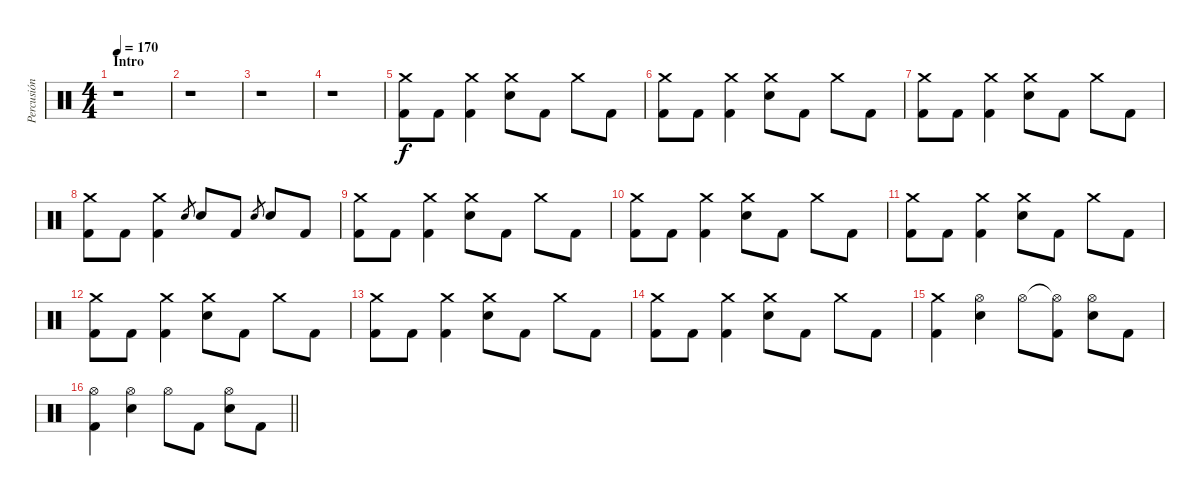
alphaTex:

\track ("Percusión" "Percusión") {instrument percussion}
\staff {score}
\articulation defaults
\ts (4 4)
\section ("" "Intro")
\tempo 170
\clef neutral
\ks c
r.1{dy f} |
r.1 |
r.1 |
r.1 |
("Crash medium (hit)" "Kick (hit) 2").8 "Kick (hit) 2".8 ("Crash medium (hit)" "Kick (hit) 2").4 ("Crash medium (hit)" "Electric Snare (hit)").8 "Kick (hit) 2".8 "Crash medium (hit)".8 "Kick (hit) 2".8 |
("Crash medium (hit)" "Kick (hit) 2").8 "Kick (hit) 2".8 ("Crash medium (hit)" "Kick (hit) 2").4 ("Crash medium (hit)" "Electric Snare (hit)").8 "Kick (hit) 2".8 "Crash medium (hit)".8 "Kick (hit) 2".8 |
("Crash medium (hit)" "Kick (hit) 2").8 "Kick (hit) 2".8 ("Crash medium (hit)" "Kick (hit) 2").4 ("Crash medium (hit)" "Electric Snare (hit)").8 "Kick (hit) 2".8 "Crash medium (hit)".8 "Kick (hit) 2".8 |
("Crash medium (hit)" "Kick (hit) 2").8 "Kick (hit) 2".8 ("Crash medium (hit)" "Kick (hit) 2").4 "Electric Snare (hit)".8{gr} "Electric Snare (hit)".8 "Kick (hit) 2".8 "Electric Snare (hit)".8{gr} "Electric Snare (hit)".8 "Kick (hit) 2".8 |
("Crash medium (hit)" "Kick (hit) 2").8 "Kick (hit) 2".8 ("Crash medium (hit)" "Kick (hit) 2").4 ("Crash medium (hit)" "Electric Snare (hit)").8 "Kick (hit) 2".8 "Crash medium (hit)".8 "Kick (hit) 2".8 |
("Crash medium (hit)" "Kick (hit) 2").8 "Kick (hit) 2".8 ("Crash medium (hit)" "Kick (hit) 2").4 ("Crash medium (hit)" "Electric Snare (hit)").8 "Kick (hit) 2".8 "Crash medium (hit)".8 "Kick (hit) 2".8 |
("Crash medium (hit)" "Kick (hit) 2").8 "Kick (hit) 2".8 ("Crash medium (hit)" "Kick (hit) 2").4 ("Crash medium (hit)" "Electric Snare (hit)").8 "Kick (hit) 2".8 "Crash medium (hit)".8 "Kick (hit) 2".8 |
("Crash medium (hit)" "Kick (hit) 2").8 "Kick (hit) 2".8 ("Crash medium (hit)" "Kick (hit) 2").4 ("Crash medium (hit)" "Electric Snare (hit)").8 "Kick (hit) 2".8 "Crash medium (hit)".8 "Kick (hit) 2".8 |
("Crash medium (hit)" "Kick (hit) 2").8 "Kick (hit) 2".8 ("Crash medium (hit)" "Kick (hit) 2").4 ("Crash medium (hit)" "Electric Snare (hit)").8 "Kick (hit) 2".8 "Crash medium (hit)".8 "Kick (hit) 2".8 |
("Crash medium (hit)" "Kick (hit) 2").8 "Kick (hit) 2".8 ("Crash medium (hit)" "Kick (hit) 2").4 ("Crash medium (hit)" "Electric Snare (hit)").8 "Kick (hit) 2".8 "Crash medium (hit)".8 "Kick (hit) 2".8 |
("Crash medium (hit)" "Kick (hit) 2").4 ("Hi-Hat (open)" "Electric Snare (hit)").4 "Hi-Hat (open)".8 ("Hi-Hat (open)"{t} "Kick (hit) 2").8 ("Hi-Hat (open)" "Electric Snare (hit)").8 "Kick (hit) 2".8 |
\barLineRight lightlight
("Hi-Hat (open)" "Kick (hit) 2").4 ("Hi-Hat (open)" "Electric Snare (hit)").4 "Hi-Hat (open)".8 "Kick (hit) 2".8 ("Hi-Hat (open)" "Electric Snare (hit)").8 "Kick (hit) 2".8
